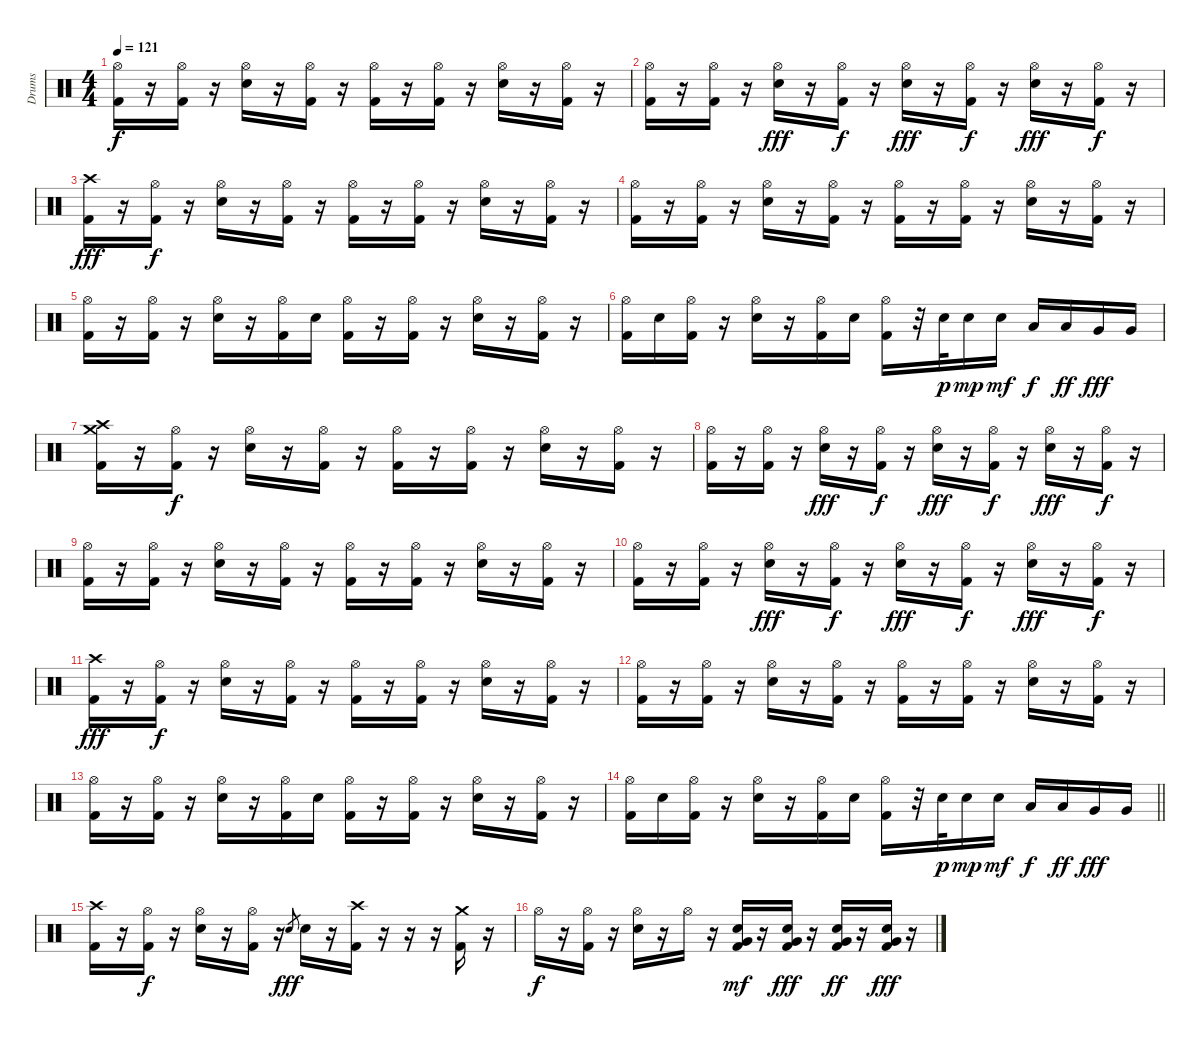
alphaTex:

\track ("Drums" "Drums") {instrument percussion}
\staff {score}
\articulation defaults
\ts (4 4)
\tempo 121
\clef neutral
\ks c
("Hi-Hat (open)" "Kick (hit) 2").16{dy f} r.16 ("Hi-Hat (open)" "Kick (hit) 2").16 r.16 ("Hi-Hat (open)" "Electric Snare (hit)").16 r.16 ("Hi-Hat (open)" "Kick (hit) 2").16 r.16 ("Hi-Hat (open)" "Kick (hit) 2").16 r.16 ("Hi-Hat (open)" "Kick (hit) 2").16 r.16 ("Hi-Hat (open)" "Electric Snare (hit)").16 r.16 ("Hi-Hat (open)" "Kick (hit) 2").16 r.16 |
("Hi-Hat (open)" "Kick (hit) 2").16 r.16 ("Hi-Hat (open)" "Kick (hit) 2").16 r.16 ("Hi-Hat (open)" "Electric Snare (hit)").16{dy fff} r.16 ("Hi-Hat (open)" "Kick (hit) 2").16{dy f} r.16 ("Hi-Hat (open)" "Electric Snare (hit)").16{dy fff} r.16 ("Hi-Hat (open)" "Kick (hit) 2").16{dy f} r.16 ("Hi-Hat (open)" "Electric Snare (hit)").16{dy fff} r.16 ("Hi-Hat (open)" "Kick (hit) 2").16{dy f} r.16 |
("Crash high (hit)" "Kick (hit) 2").16{dy fff} r.16 ("Hi-Hat (open)" "Kick (hit) 2").16{dy f} r.16 ("Hi-Hat (open)" "Electric Snare (hit)").16 r.16 ("Hi-Hat (open)" "Kick (hit) 2").16 r.16 ("Hi-Hat (open)" "Kick (hit) 2").16 r.16 ("Hi-Hat (open)" "Kick (hit) 2").16 r.16 ("Hi-Hat (open)" "Electric Snare (hit)").16 r.16 ("Hi-Hat (open)" "Kick (hit) 2").16 r.16 |
("Hi-Hat (open)" "Kick (hit) 2").16 r.16 ("Hi-Hat (open)" "Kick (hit) 2").16 r.16 ("Hi-Hat (open)" "Electric Snare (hit)").16 r.16 ("Hi-Hat (open)" "Kick (hit) 2").16 r.16 ("Hi-Hat (open)" "Kick (hit) 2").16 r.16 ("Hi-Hat (open)" "Kick (hit) 2").16 r.16 ("Hi-Hat (open)" "Electric Snare (hit)").16 r.16 ("Hi-Hat (open)" "Kick (hit) 2").16 r.16 |
("Hi-Hat (open)" "Kick (hit) 2").16 r.16 ("Hi-Hat (open)" "Kick (hit) 2").16 r.16 ("Hi-Hat (open)" "Electric Snare (hit)").16 r.16 ("Hi-Hat (open)" "Kick (hit) 2").16 "Electric Snare (hit)".16 ("Hi-Hat (open)" "Kick (hit) 2").16 r.16 ("Hi-Hat (open)" "Kick (hit) 2").16 r.16 ("Hi-Hat (open)" "Electric Snare (hit)").16 r.16 ("Hi-Hat (open)" "Kick (hit) 2").16 r.16 |
("Hi-Hat (open)" "Kick (hit) 2").16 "Electric Snare (hit)".16 ("Hi-Hat (open)" "Kick (hit) 2").16 r.16 ("Hi-Hat (open)" "Electric Snare (hit)").16 r.16 ("Hi-Hat (open)" "Kick (hit) 2").16 "Electric Snare (hit)".16 ("Hi-Hat (open)" "Kick (hit) 2").16 r.32 "Electric Snare (hit)".32{dy p} "Electric Snare (hit)".16{dy mp} "Electric Snare (hit)".16{dy mf} "Low Tom (hit)".16{dy f} "Low Tom (hit)".16{dy ff} "Very Low Tom (hit)".16{dy fff} "Very Low Tom (hit)".16 |
("Crash high (hit)" "Crash medium (hit)" "Kick (hit) 2").16 r.16 ("Hi-Hat (open)" "Kick (hit) 2").16{dy f} r.16 ("Hi-Hat (open)" "Electric Snare (hit)").16 r.16 ("Hi-Hat (open)" "Kick (hit) 2").16 r.16 ("Hi-Hat (open)" "Kick (hit) 2").16 r.16 ("Hi-Hat (open)" "Kick (hit) 2").16 r.16 ("Hi-Hat (open)" "Electric Snare (hit)").16 r.16 ("Hi-Hat (open)" "Kick (hit) 2").16 r.16 |
("Hi-Hat (open)" "Kick (hit) 2").16 r.16 ("Hi-Hat (open)" "Kick (hit) 2").16 r.16 ("Hi-Hat (open)" "Electric Snare (hit)").16{dy fff} r.16 ("Hi-Hat (open)" "Kick (hit) 2").16{dy f} r.16 ("Hi-Hat (open)" "Electric Snare (hit)").16{dy fff} r.16 ("Hi-Hat (open)" "Kick (hit) 2").16{dy f} r.16 ("Hi-Hat (open)" "Electric Snare (hit)").16{dy fff} r.16 ("Hi-Hat (open)" "Kick (hit) 2").16{dy f} r.16 |
("Hi-Hat (open)" "Kick (hit) 2").16 r.16 ("Hi-Hat (open)" "Kick (hit) 2").16 r.16 ("Hi-Hat (open)" "Electric Snare (hit)").16 r.16 ("Hi-Hat (open)" "Kick (hit) 2").16 r.16 ("Hi-Hat (open)" "Kick (hit) 2").16 r.16 ("Hi-Hat (open)" "Kick (hit) 2").16 r.16 ("Hi-Hat (open)" "Electric Snare (hit)").16 r.16 ("Hi-Hat (open)" "Kick (hit) 2").16 r.16 |
("Hi-Hat (open)" "Kick (hit) 2").16 r.16 ("Hi-Hat (open)" "Kick (hit) 2").16 r.16 ("Hi-Hat (open)" "Electric Snare (hit)").16{dy fff} r.16 ("Hi-Hat (open)" "Kick (hit) 2").16{dy f} r.16 ("Hi-Hat (open)" "Electric Snare (hit)").16{dy fff} r.16 ("Hi-Hat (open)" "Kick (hit) 2").16{dy f} r.16 ("Hi-Hat (open)" "Electric Snare (hit)").16{dy fff} r.16 ("Hi-Hat (open)" "Kick (hit) 2").16{dy f} r.16 |
("Crash high (hit)" "Kick (hit) 2").16{dy fff} r.16 ("Hi-Hat (open)" "Kick (hit) 2").16{dy f} r.16 ("Hi-Hat (open)" "Electric Snare (hit)").16 r.16 ("Hi-Hat (open)" "Kick (hit) 2").16 r.16 ("Hi-Hat (open)" "Kick (hit) 2").16 r.16 ("Hi-Hat (open)" "Kick (hit) 2").16 r.16 ("Hi-Hat (open)" "Electric Snare (hit)").16 r.16 ("Hi-Hat (open)" "Kick (hit) 2").16 r.16 |
("Hi-Hat (open)" "Kick (hit) 2").16 r.16 ("Hi-Hat (open)" "Kick (hit) 2").16 r.16 ("Hi-Hat (open)" "Electric Snare (hit)").16 r.16 ("Hi-Hat (open)" "Kick (hit) 2").16 r.16 ("Hi-Hat (open)" "Kick (hit) 2").16 r.16 ("Hi-Hat (open)" "Kick (hit) 2").16 r.16 ("Hi-Hat (open)" "Electric Snare (hit)").16 r.16 ("Hi-Hat (open)" "Kick (hit) 2").16 r.16 |
("Hi-Hat (open)" "Kick (hit) 2").16 r.16 ("Hi-Hat (open)" "Kick (hit) 2").16 r.16 ("Hi-Hat (open)" "Electric Snare (hit)").16 r.16 ("Hi-Hat (open)" "Kick (hit) 2").16 "Electric Snare (hit)".16 ("Hi-Hat (open)" "Kick (hit) 2").16 r.16 ("Hi-Hat (open)" "Kick (hit) 2").16 r.16 ("Hi-Hat (open)" "Electric Snare (hit)").16 r.16 ("Hi-Hat (open)" "Kick (hit) 2").16 r.16 |
\barLineRight lightlight
("Hi-Hat (open)" "Kick (hit) 2").16 "Electric Snare (hit)".16 ("Hi-Hat (open)" "Kick (hit) 2").16 r.16 ("Hi-Hat (open)" "Electric Snare (hit)").16 r.16 ("Hi-Hat (open)" "Kick (hit) 2").16 "Electric Snare (hit)".16 ("Hi-Hat (open)" "Kick (hit) 2").16 r.32 "Electric Snare (hit)".32{dy p} "Electric Snare (hit)".16{dy mp} "Electric Snare (hit)".16{dy mf} "Low Tom (hit)".16{dy f} "Low Tom (hit)".16{dy ff} "Very Low Tom (hit)".16{dy fff} "Very Low Tom (hit)".16 |
("Crash high (hit)" "Kick (hit) 2").16 r.16 ("Hi-Hat (open)" "Kick (hit) 2").16{dy f} r.16 ("Hi-Hat (open)" "Electric Snare (hit)").16 r.16 ("Hi-Hat (open)" "Kick (hit) 2").16 r.16 "Electric Snare (hit)".8{gr dy fff} "Electric Snare (hit)".16 r.16 ("Crash high (hit)" "Kick (hit) 2").16 r.16 r.16 r.16 ("Crash medium (hit)" "Kick (hit) 2").16 r.16 |
"Hi-Hat (open)".16{dy f} r.16 ("Hi-Hat (open)" "Kick (hit) 2").16 r.16 ("Hi-Hat (open)" "Electric Snare (hit)").16 r.16 "Hi-Hat (open)".16 r.16 ("Electric Snare (hit)" "Very Low Tom (hit)" "Kick (hit) 2").16{dy mf} r.16 ("Electric Snare (hit)" "Very Low Tom (hit)" "Kick (hit) 2").16{dy fff} r.16 ("Electric Snare (hit)" "Very Low Tom (hit)" "Kick (hit) 2").16{dy ff} r.16 ("Electric Snare (hit)" "Very Low Tom (hit)" "Kick (hit) 2").16{dy fff} r.16
